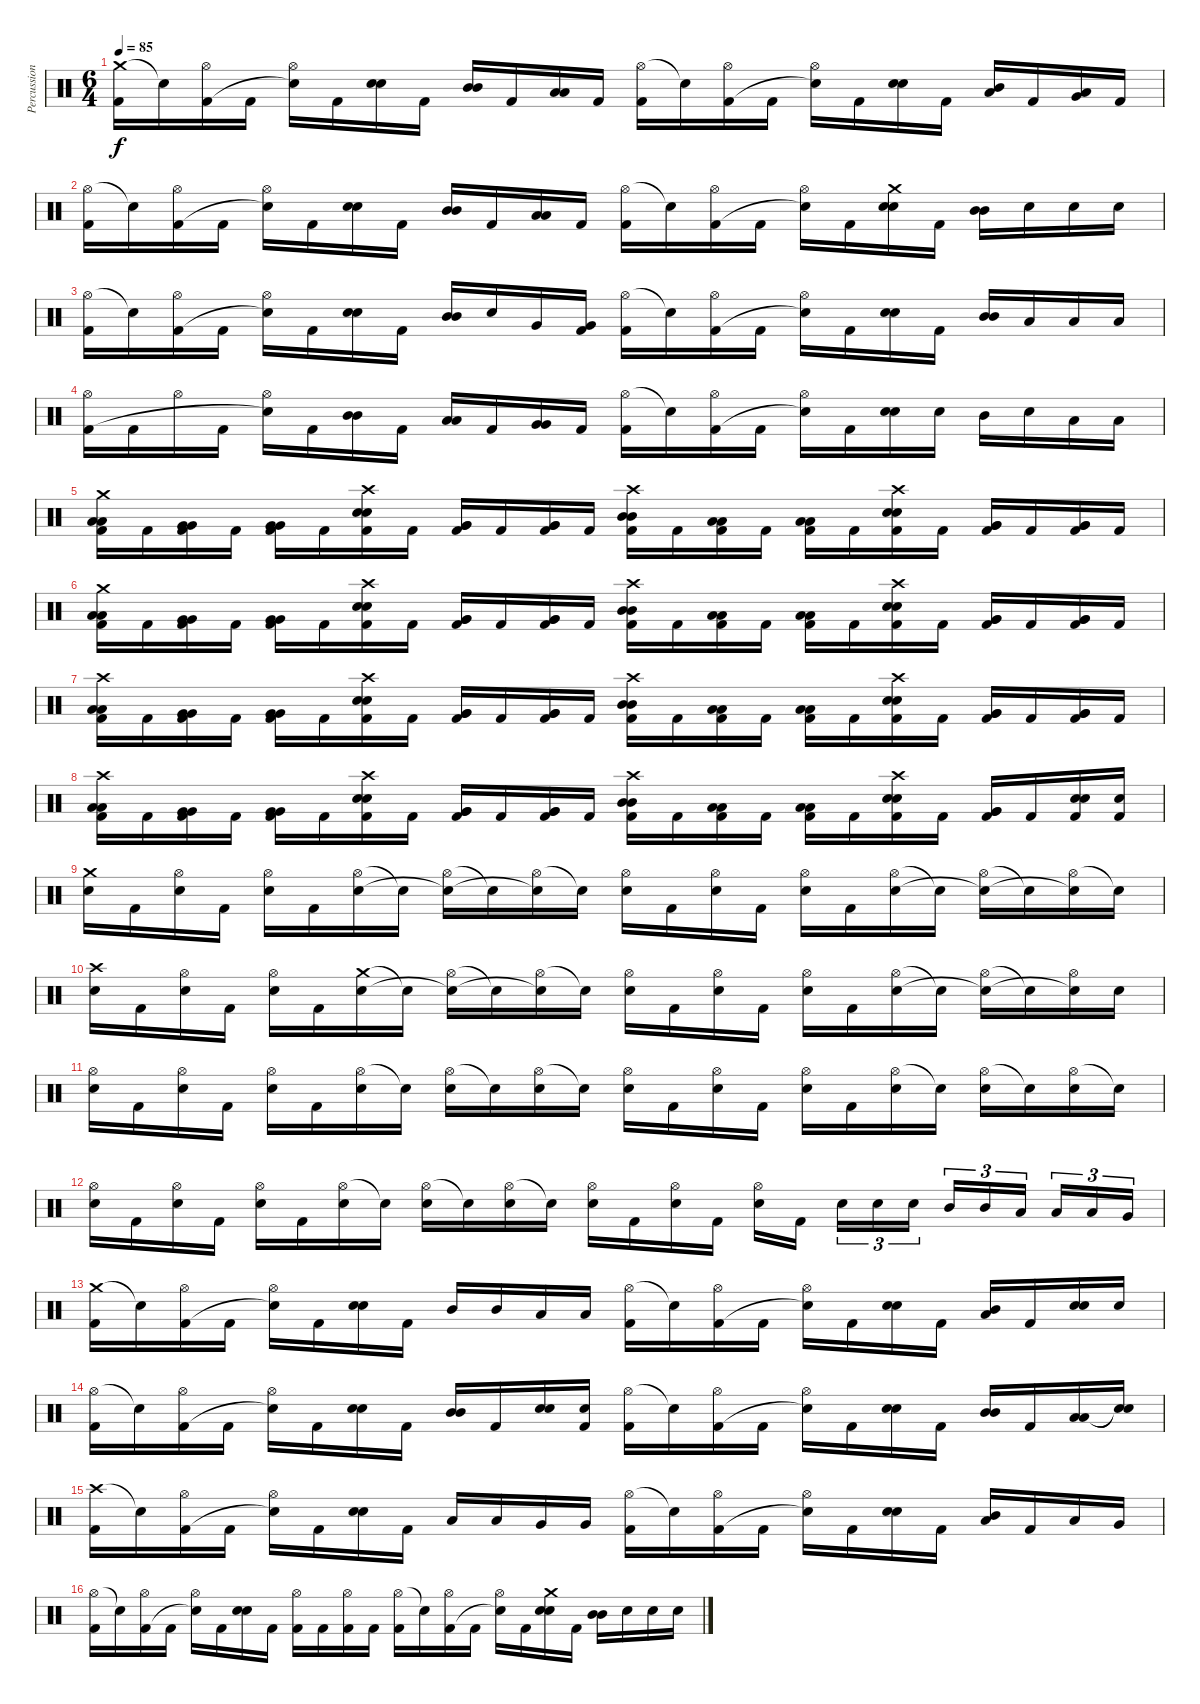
\track ("Percussion" "Percussion") {instrument percussion}
\staff {score}
\articulation defaults
\ts (6 4)
\tempo 85
\clef neutral
\ks c
("Crash medium (hit)" "Kick (hit) 2").16{dy f} "Snare (hit)"{t}.16 ("Hi-Hat (open)" "Kick (hit) 2").16 "Kick (hit) 2".16 ("Hi-Hat (open)" "Snare (hit)"{t}).16 "Kick (hit) 2".16 ("Snare (hit) 2" "Snare (hit) 2").16{bd 60} "Kick (hit) 2".16 ("Mid Tom (hit)" "Mid Tom (hit)").16{bd 60} "Kick (hit) 2".16 ("Low Tom (hit)" "Low Tom (hit)").16{bd 60} "Kick (hit) 2".16 ("Hi-Hat (open)" "Kick (hit) 2").16 "Snare (hit)"{t}.16 ("Hi-Hat (open)" "Kick (hit) 2").16 "Kick (hit) 2".16 ("Hi-Hat (open)" "Snare (hit)"{t}).16 "Kick (hit) 2".16 ("Snare (hit) 2" "Snare (hit) 2").16{bd 60} "Kick (hit) 2".16 ("Low Tom (hit)" "Mid Tom (hit)").16{bd 60} "Kick (hit) 2".16 ("Very Low Tom (hit)" "Low Tom (hit)").16{bd 60} "Kick (hit) 2".16 |
("Hi-Hat (open)" "Kick (hit) 2").16 "Snare (hit)"{t}.16 ("Hi-Hat (open)" "Kick (hit) 2").16 "Kick (hit) 2".16 ("Hi-Hat (open)" "Snare (hit)"{t}).16 "Kick (hit) 2".16 ("Snare (hit) 2" "Snare (hit) 2").16{bd 60} "Kick (hit) 2".16 ("Mid Tom (hit)" "Mid Tom (hit)").16{bd 60} "Kick (hit) 2".16 ("Low Tom (hit)" "Low Tom (hit)").16{bd 60} "Kick (hit) 2".16 ("Hi-Hat (open)" "Kick (hit) 2").16 "Snare (hit)"{t}.16 ("Hi-Hat (open)" "Kick (hit) 2").16 "Kick (hit) 2".16 ("Hi-Hat (open)" "Snare (hit)"{t}).16 "Kick (hit) 2".16 ("Crash medium (hit)" "Snare (hit) 2" "Snare (hit) 2").16{bu 60} "Kick (hit) 2".16 ("Mid Tom (hit)" "Mid Tom (hit)").16{bd 60} "Snare (hit) 2".16 "Snare (hit) 2".16 "Snare (hit) 2".16 |
("Hi-Hat (open)" "Kick (hit) 2").16 "Snare (hit)"{t}.16 ("Hi-Hat (open)" "Kick (hit) 2").16 "Kick (hit) 2".16 ("Hi-Hat (open)" "Snare (hit)"{t}).16 "Kick (hit) 2".16 ("Snare (hit) 2" "Snare (hit) 2").16{bd 60} "Kick (hit) 2".16 ("Mid Tom (hit)" "Mid Tom (hit)").16{bd 60} "Snare (hit) 2".16 "Very Low Tom (hit)".16 ("Very Low Tom (hit)" "Kick (hit) 2").16 ("Hi-Hat (open)" "Kick (hit) 2").16 "Snare (hit)"{t}.16 ("Hi-Hat (open)" "Kick (hit) 2").16 "Kick (hit) 2".16 ("Hi-Hat (open)" "Snare (hit)"{t}).16 "Kick (hit) 2".16 ("Snare (hit) 2" "Snare (hit) 2").16{bu 60} "Kick (hit) 2".16 ("Mid Tom (hit)" "Mid Tom (hit)").16{bd 60} "Low Tom (hit)".16 "Low Tom (hit)".16 "Low Tom (hit)".16 |
("Hi-Hat (open)" "Kick (hit) 2").16 "Kick (hit) 2".16 "Hi-Hat (open)".16 "Kick (hit) 2".16 ("Hi-Hat (open)" "Snare (hit)"{t}).16 "Kick (hit) 2".16 ("Mid Tom (hit)" "Mid Tom (hit)").16{bd 60} "Kick (hit) 2".16 ("Low Tom (hit)" "Low Tom (hit)").16{bd 60} "Kick (hit) 2".16 ("Very Low Tom (hit)" "Very Low Tom (hit)").16{bd 60} "Kick (hit) 2".16 ("Hi-Hat (open)" "Kick (hit) 2").16 "Snare (hit)"{t}.16 ("Hi-Hat (open)" "Kick (hit) 2").16 "Kick (hit) 2".16 ("Hi-Hat (open)" "Snare (hit)"{t}).16 "Kick (hit) 2".16 ("Snare (hit) 2" "Snare (hit) 2").16{bd 60} "Snare (hit) 2".16 "Mid Tom (hit)".16 "Snare (hit) 2".16 "Low Tom (hit)".16 "Low Tom (hit)".16 |
("Crash medium (hit)" "Low Tom (hit)" "Low Tom (hit)" "Kick (hit) 2").16{bu 60} "Kick (hit) 2".16 ("Very Low Tom (hit)" "Very Low Tom (hit)" "Kick (hit) 2").16{bd 60} "Kick (hit) 2".16 ("Very Low Tom (hit)" "Very Low Tom (hit)" "Kick (hit) 2").16{bd 60} "Kick (hit) 2".16 ("Crash high (hit)" "Snare (hit) 2" "Snare (hit) 2" "Kick (hit) 2").16{bu 60} "Kick (hit) 2".16 ("Very Low Tom (hit)" "Very Low Tom (hit)" "Kick (hit) 2").16{bd 60} "Kick (hit) 2".16 ("Very Low Tom (hit)" "Very Low Tom (hit)" "Kick (hit) 2").16{bd 60} "Kick (hit) 2".16 ("Crash high (hit)" "Mid Tom (hit)" "Mid Tom (hit)" "Kick (hit) 2").16{bu 60} "Kick (hit) 2".16 ("Low Tom (hit)" "Low Tom (hit)" "Kick (hit) 2").16{bd 60} "Kick (hit) 2".16 ("Low Tom (hit)" "Low Tom (hit)" "Kick (hit) 2").16{bd 60} "Kick (hit) 2".16 ("Crash high (hit)" "Snare (hit) 2" "Snare (hit) 2" "Kick (hit) 2").16{bu 60} "Kick (hit) 2".16 ("Very Low Tom (hit)" "Very Low Tom (hit)" "Kick (hit) 2").16{bd 60} "Kick (hit) 2".16 ("Very Low Tom (hit)" "Very Low Tom (hit)" "Kick (hit) 2").16{bd 60} "Kick (hit) 2".16 |
("Crash medium (hit)" "Low Tom (hit)" "Low Tom (hit)" "Kick (hit) 2").16{bu 60} "Kick (hit) 2".16 ("Very Low Tom (hit)" "Very Low Tom (hit)" "Kick (hit) 2").16{bd 60} "Kick (hit) 2".16 ("Very Low Tom (hit)" "Very Low Tom (hit)" "Kick (hit) 2").16{bd 60} "Kick (hit) 2".16 ("Crash high (hit)" "Snare (hit) 2" "Snare (hit) 2" "Kick (hit) 2").16{bu 60} "Kick (hit) 2".16 ("Very Low Tom (hit)" "Very Low Tom (hit)" "Kick (hit) 2").16{bd 60} "Kick (hit) 2".16 ("Very Low Tom (hit)" "Very Low Tom (hit)" "Kick (hit) 2").16{bd 60} "Kick (hit) 2".16 ("Crash high (hit)" "Mid Tom (hit)" "Mid Tom (hit)" "Kick (hit) 2").16{bu 60} "Kick (hit) 2".16 ("Low Tom (hit)" "Low Tom (hit)" "Kick (hit) 2").16{bd 60} "Kick (hit) 2".16 ("Low Tom (hit)" "Low Tom (hit)" "Kick (hit) 2").16{bd 60} "Kick (hit) 2".16 ("Crash high (hit)" "Snare (hit) 2" "Snare (hit) 2" "Kick (hit) 2").16{bu 60} "Kick (hit) 2".16 ("Very Low Tom (hit)" "Very Low Tom (hit)" "Kick (hit) 2").16{bd 60} "Kick (hit) 2".16 ("Very Low Tom (hit)" "Very Low Tom (hit)" "Kick (hit) 2").16{bd 60} "Kick (hit) 2".16 |
("Crash high (hit)" "Low Tom (hit)" "Low Tom (hit)" "Kick (hit) 2").16{bu 60} "Kick (hit) 2".16 ("Very Low Tom (hit)" "Very Low Tom (hit)" "Kick (hit) 2").16{bd 60} "Kick (hit) 2".16 ("Very Low Tom (hit)" "Very Low Tom (hit)" "Kick (hit) 2").16{bd 60} "Kick (hit) 2".16 ("Crash high (hit)" "Snare (hit) 2" "Snare (hit) 2" "Kick (hit) 2").16{bu 60} "Kick (hit) 2".16 ("Very Low Tom (hit)" "Very Low Tom (hit)" "Kick (hit) 2").16{bd 60} "Kick (hit) 2".16 ("Very Low Tom (hit)" "Very Low Tom (hit)" "Kick (hit) 2").16{bd 60} "Kick (hit) 2".16 ("Crash high (hit)" "Mid Tom (hit)" "Mid Tom (hit)" "Kick (hit) 2").16{bu 60} "Kick (hit) 2".16 ("Low Tom (hit)" "Low Tom (hit)" "Kick (hit) 2").16{bd 60} "Kick (hit) 2".16 ("Low Tom (hit)" "Low Tom (hit)" "Kick (hit) 2").16{bd 60} "Kick (hit) 2".16 ("Crash high (hit)" "Snare (hit) 2" "Snare (hit) 2" "Kick (hit) 2").16{bu 60} "Kick (hit) 2".16 ("Very Low Tom (hit)" "Very Low Tom (hit)" "Kick (hit) 2").16{bd 60} "Kick (hit) 2".16 ("Very Low Tom (hit)" "Very Low Tom (hit)" "Kick (hit) 2").16{bd 60} "Kick (hit) 2".16 |
("Crash high (hit)" "Low Tom (hit)" "Low Tom (hit)" "Kick (hit) 2").16{bu 60} "Kick (hit) 2".16 ("Very Low Tom (hit)" "Very Low Tom (hit)" "Kick (hit) 2").16{bd 60} "Kick (hit) 2".16 ("Very Low Tom (hit)" "Very Low Tom (hit)" "Kick (hit) 2").16{bd 60} "Kick (hit) 2".16 ("Crash high (hit)" "Snare (hit) 2" "Snare (hit) 2" "Kick (hit) 2").16{bu 60} "Kick (hit) 2".16 ("Very Low Tom (hit)" "Very Low Tom (hit)" "Kick (hit) 2").16{bd 60} "Kick (hit) 2".16 ("Very Low Tom (hit)" "Very Low Tom (hit)" "Kick (hit) 2").16{bd 60} "Kick (hit) 2".16 ("Crash high (hit)" "Mid Tom (hit)" "Mid Tom (hit)" "Kick (hit) 2").16{bu 60} "Kick (hit) 2".16 ("Low Tom (hit)" "Low Tom (hit)" "Kick (hit) 2").16{bd 60} "Kick (hit) 2".16 ("Low Tom (hit)" "Low Tom (hit)" "Kick (hit) 2").16{bd 60} "Kick (hit) 2".16 ("Crash high (hit)" "Snare (hit) 2" "Snare (hit) 2" "Kick (hit) 2").16{bu 60} "Kick (hit) 2".16 ("Very Low Tom (hit)" "Very Low Tom (hit)" "Kick (hit) 2").16{bd 60} "Kick (hit) 2".16 ("Snare (hit) 2" "Snare (hit) 2" "Kick (hit) 2").16{bd 60} ("Snare (hit) 2" "Kick (hit) 2").16 |
("Crash medium (hit)" "Snare (hit) 2").16 "Kick (hit) 2".16 ("Hi-Hat (open)" "Snare (hit) 2").16 "Kick (hit) 2".16 ("Hi-Hat (open)" "Snare (hit) 2").16 "Kick (hit) 2".16 ("Hi-Hat (open)" "Snare (hit) 2").16 "Snare (hit)"{t}.16 ("Hi-Hat (open)" "Snare (hit)"{t}).16 "Snare (hit)"{t}.16 ("Hi-Hat (open)" "Snare (hit)"{t}).16 "Snare (hit)"{t}.16 ("Hi-Hat (open)" "Snare (hit) 2").16 "Kick (hit) 2".16 ("Hi-Hat (open)" "Snare (hit) 2").16 "Kick (hit) 2".16 ("Hi-Hat (open)" "Snare (hit) 2").16 "Kick (hit) 2".16 ("Hi-Hat (open)" "Snare (hit) 2").16 "Snare (hit)"{t}.16 ("Hi-Hat (open)" "Snare (hit)"{t}).16 "Snare (hit)"{t}.16 ("Hi-Hat (open)" "Snare (hit)"{t}).16 "Snare (hit)"{t}.16 |
("Crash high (hit)" "Snare (hit) 2").16 "Kick (hit) 2".16 ("Hi-Hat (open)" "Snare (hit) 2").16 "Kick (hit) 2".16 ("Hi-Hat (open)" "Snare (hit) 2").16 "Kick (hit) 2".16 ("Crash medium (hit)" "Snare (hit) 2").16 "Snare (hit)"{t}.16 ("Hi-Hat (open)" "Snare (hit)"{t}).16 "Snare (hit)"{t}.16 ("Hi-Hat (open)" "Snare (hit)"{t}).16 "Snare (hit)"{t}.16 ("Hi-Hat (open)" "Snare (hit) 2").16 "Kick (hit) 2".16 ("Hi-Hat (open)" "Snare (hit) 2").16 "Kick (hit) 2".16 ("Hi-Hat (open)" "Snare (hit) 2").16 "Kick (hit) 2".16 ("Hi-Hat (open)" "Snare (hit) 2").16 "Snare (hit)"{t}.16 ("Hi-Hat (open)" "Snare (hit)"{t}).16 "Snare (hit)"{t}.16 ("Hi-Hat (open)" "Snare (hit)"{t}).16 "Snare (hit) 2".16 |
("Hi-Hat (open)" "Snare (hit) 2").16 "Kick (hit) 2".16 ("Hi-Hat (open)" "Snare (hit) 2").16 "Kick (hit) 2".16 ("Hi-Hat (open)" "Snare (hit) 2").16 "Kick (hit) 2".16 ("Hi-Hat (open)" "Snare (hit) 2").16 "Snare (hit)"{t}.16 ("Hi-Hat (open)" "Snare (hit) 2").16 "Snare (hit)"{t}.16 ("Hi-Hat (open)" "Snare (hit) 2").16 "Snare (hit)"{t}.16 ("Hi-Hat (open)" "Snare (hit) 2").16 "Kick (hit) 2".16 ("Hi-Hat (open)" "Snare (hit) 2").16 "Kick (hit) 2".16 ("Hi-Hat (open)" "Snare (hit) 2").16 "Kick (hit) 2".16 ("Hi-Hat (open)" "Snare (hit) 2").16 "Snare (hit)"{t}.16 ("Hi-Hat (open)" "Snare (hit) 2").16 "Snare (hit)"{t}.16 ("Hi-Hat (open)" "Snare (hit) 2").16 "Snare (hit)"{t}.16 |
("Hi-Hat (open)" "Snare (hit) 2").16 "Kick (hit) 2".16 ("Hi-Hat (open)" "Snare (hit) 2").16 "Kick (hit) 2".16 ("Hi-Hat (open)" "Snare (hit) 2").16 "Kick (hit) 2".16 ("Hi-Hat (open)" "Snare (hit) 2").16 "Snare (hit)"{t}.16 ("Hi-Hat (open)" "Snare (hit) 2").16 "Snare (hit)"{t}.16 ("Hi-Hat (open)" "Snare (hit) 2").16 "Snare (hit)"{t}.16 ("Hi-Hat (open)" "Snare (hit) 2").16 "Kick (hit) 2".16 ("Hi-Hat (open)" "Snare (hit) 2").16 "Kick (hit) 2".16 ("Hi-Hat (open)" "Snare (hit) 2").16 "Kick (hit) 2".16{beam splitsecondary} "Snare (hit) 2".16{tu (3 2)} "Snare (hit) 2".16{tu (3 2)} "Snare (hit) 2".16{tu (3 2) beam splitsecondary} "Mid Tom (hit)".16{tu (3 2)} "Mid Tom (hit)".16{tu (3 2)} "Low Tom (hit)".16{tu (3 2) beam splitsecondary} "Low Tom (hit)".16{tu (3 2)} "Low Tom (hit)".16{tu (3 2)} "Very Low Tom (hit)".16{tu (3 2)} |
("Crash medium (hit)" "Kick (hit) 2").16 "Snare (hit)"{t}.16 ("Hi-Hat (open)" "Kick (hit) 2").16 "Kick (hit) 2".16 ("Hi-Hat (open)" "Snare (hit)"{t}).16 "Kick (hit) 2".16 ("Snare (hit) 2" "Snare (hit) 2").16{bd 60} "Kick (hit) 2".16 "Mid Tom (hit)".16 "Mid Tom (hit)".16 "Low Tom (hit)".16 "Low Tom (hit)".16 ("Hi-Hat (open)" "Kick (hit) 2").16 "Snare (hit)"{t}.16 ("Hi-Hat (open)" "Kick (hit) 2").16 "Kick (hit) 2".16 ("Hi-Hat (open)" "Snare (hit)"{t}).16 "Kick (hit) 2".16 ("Snare (hit) 2" "Snare (hit) 2").16{bd 60} "Kick (hit) 2".16 ("Low Tom (hit)" "Mid Tom (hit)").16{bd 60} "Kick (hit) 2".16 ("Snare (hit) 2" "Snare (hit) 2").16{bd 60} "Snare (hit) 2".16 |
("Hi-Hat (open)" "Kick (hit) 2").16 "Snare (hit)"{t}.16 ("Hi-Hat (open)" "Kick (hit) 2").16 "Kick (hit) 2".16 ("Hi-Hat (open)" "Snare (hit)"{t}).16 "Kick (hit) 2".16 ("Snare (hit) 2" "Snare (hit) 2").16{bd 60} "Kick (hit) 2".16 ("Mid Tom (hit)" "Mid Tom (hit)").16{bd 60} "Kick (hit) 2".16 ("Snare (hit) 2" "Snare (hit) 2").16{bd 60} ("Snare (hit) 2" "Kick (hit) 2").16 ("Hi-Hat (open)" "Kick (hit) 2").16 "Snare (hit)"{t}.16 ("Hi-Hat (open)" "Kick (hit) 2").16 "Kick (hit) 2".16 ("Hi-Hat (open)" "Snare (hit)"{t}).16 "Kick (hit) 2".16 ("Snare (hit) 2" "Snare (hit) 2").16{bd 60} "Kick (hit) 2".16 ("Mid Tom (hit)" "Mid Tom (hit)").16{bd 60} "Kick (hit) 2".16 ("Low Tom (hit)" "Low Tom (hit)").16{bd 60} ("Snare (hit)"{t} "Snare (hit)"{t}).16 |
("Crash high (hit)" "Kick (hit) 2").16 "Snare (hit)"{t}.16 ("Hi-Hat (open)" "Kick (hit) 2").16 "Kick (hit) 2".16 ("Hi-Hat (open)" "Snare (hit)"{t}).16 "Kick (hit) 2".16 ("Snare (hit) 2" "Snare (hit) 2").16{bd 60} "Kick (hit) 2".16 "Low Tom (hit)".16 "Low Tom (hit)".16 "Very Low Tom (hit)".16 "Very Low Tom (hit)".16 ("Hi-Hat (open)" "Kick (hit) 2").16 "Snare (hit)"{t}.16 ("Hi-Hat (open)" "Kick (hit) 2").16 "Kick (hit) 2".16 ("Hi-Hat (open)" "Snare (hit)"{t}).16 "Kick (hit) 2".16 ("Snare (hit) 2" "Snare (hit) 2").16{bd 60} "Kick (hit) 2".16 ("Low Tom (hit)" "Mid Tom (hit)").16{bd 60} "Kick (hit) 2".16 "Low Tom (hit)".16 "Very Low Tom (hit)".16 |
("Hi-Hat (open)" "Kick (hit) 2").16 "Snare (hit)"{t}.16 ("Hi-Hat (open)" "Kick (hit) 2").16 "Kick (hit) 2".16 ("Hi-Hat (open)" "Snare (hit)"{t}).16 "Kick (hit) 2".16 ("Snare (hit) 2" "Snare (hit) 2").16{bd 60} "Kick (hit) 2".16 ("Hi-Hat (open)" "Kick (hit) 2").16 "Kick (hit) 2".16 ("Hi-Hat (open)" "Kick (hit) 2").16 "Kick (hit) 2".16 ("Hi-Hat (open)" "Kick (hit) 2").16 "Snare (hit)"{t}.16 ("Hi-Hat (open)" "Kick (hit) 2").16 "Kick (hit) 2".16 ("Hi-Hat (open)" "Snare (hit)"{t}).16 "Kick (hit) 2".16 ("Crash medium (hit)" "Snare (hit) 2" "Snare (hit) 2").16{bu 60} "Kick (hit) 2".16 ("Mid Tom (hit)" "Mid Tom (hit)").16{bd 60} "Snare (hit) 2".16 "Snare (hit) 2".16 "Snare (hit) 2".16
